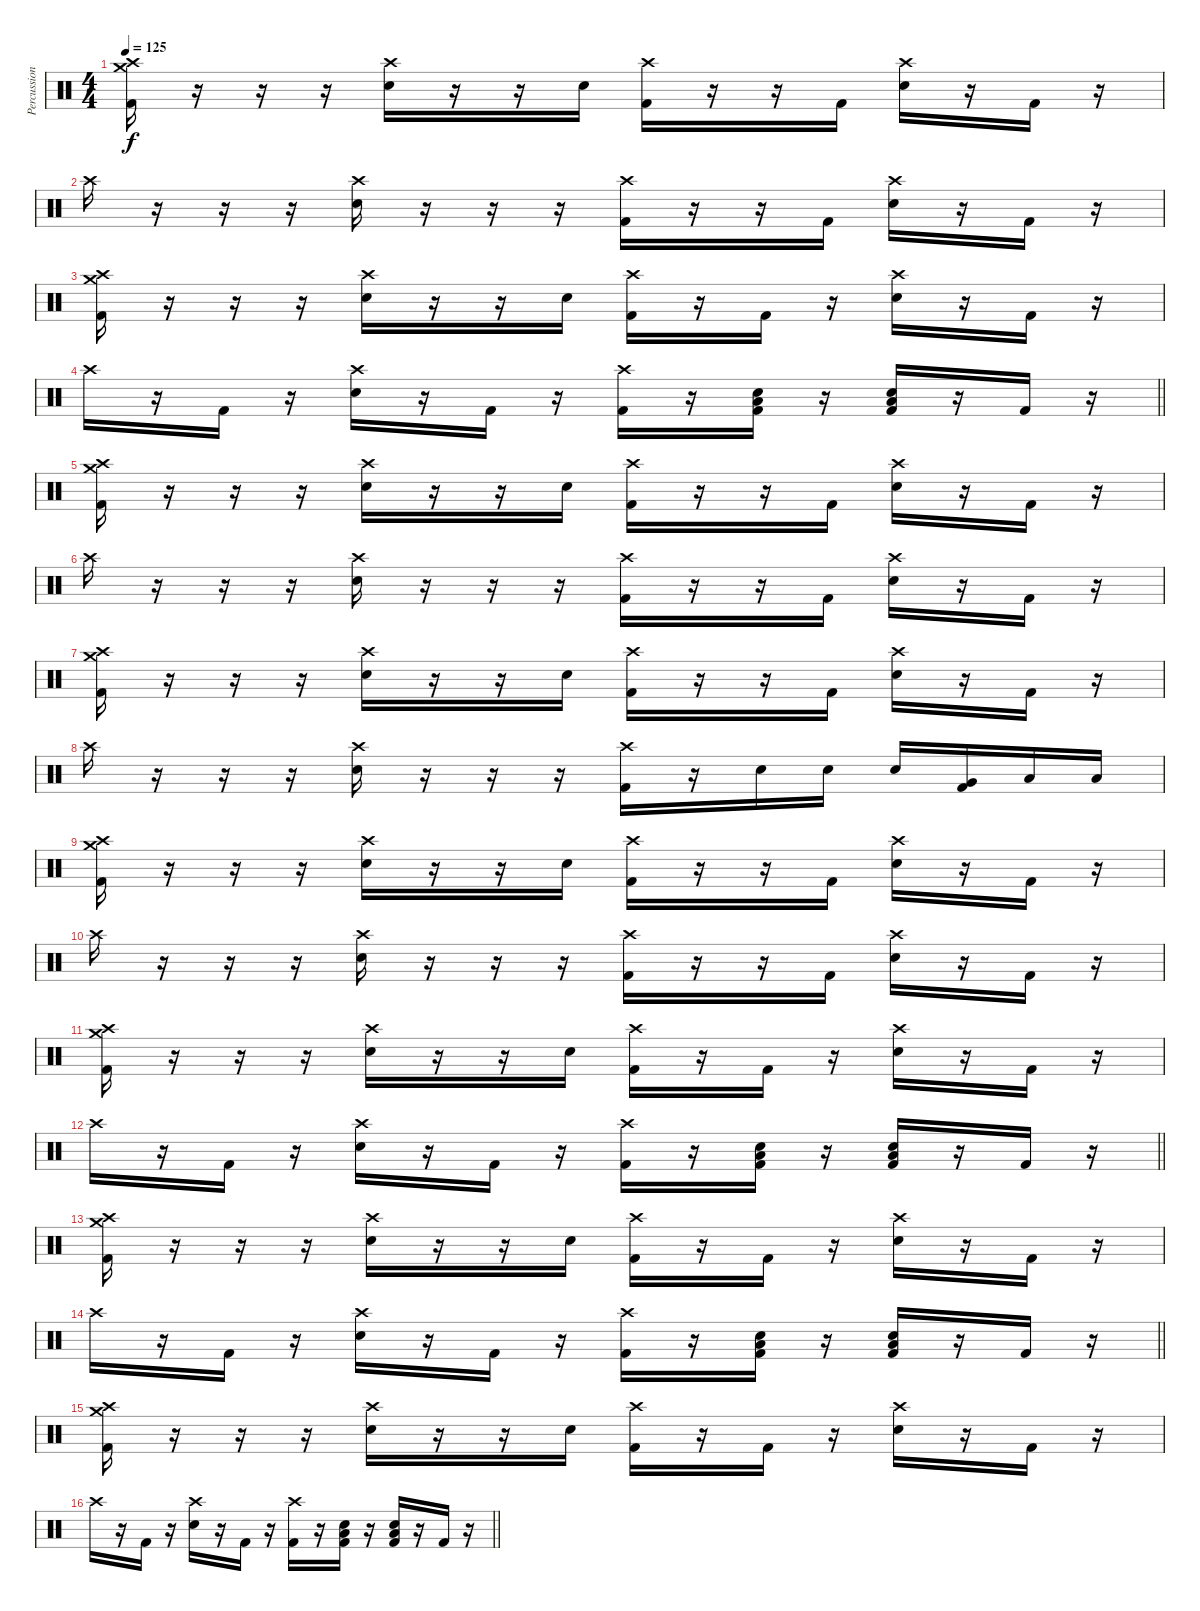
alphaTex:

\track ("Percussion" "Percussion") {instrument percussion}
\staff {score}
\articulation defaults
\ts (4 4)
\tempo 125
\clef neutral
\ks c
("Crash medium (hit)" "Crash high (hit)" "Kick (hit) 2").16{dy f} r.16 r.16 r.16 ("Crash high (hit)" "Electric Snare (hit)").16 r.16 r.16 "Electric Snare (hit)".16 ("Crash high (hit)" "Kick (hit) 2").16 r.16 r.16 "Kick (hit) 2".16 ("Crash high (hit)" "Electric Snare (hit)").16 r.16 "Kick (hit) 2".16 r.16 |
"Crash high (hit)".16 r.16 r.16 r.16 ("Crash high (hit)" "Electric Snare (hit)").16 r.16 r.16 r.16 ("Crash high (hit)" "Kick (hit) 2").16 r.16 r.16 "Kick (hit) 2".16 ("Crash high (hit)" "Electric Snare (hit)").16 r.16 "Kick (hit) 2".16 r.16 |
("Crash medium (hit)" "Crash high (hit)" "Kick (hit) 2").16 r.16 r.16 r.16 ("Crash high (hit)" "Electric Snare (hit)").16 r.16 r.16 "Electric Snare (hit)".16 ("Crash high (hit)" "Kick (hit) 2").16 r.16 "Kick (hit) 2".16 r.16 ("Crash high (hit)" "Electric Snare (hit)").16 r.16 "Kick (hit) 2".16 r.16 |
\barLineRight lightlight "Crash high (hit)".16
r.16 "Kick (hit) 2".16 r.16 ("Crash high (hit)" "Electric Snare (hit)").16 r.16 "Kick (hit) 2".16 r.16 ("Crash high (hit)" "Kick (hit) 2").16 r.16 ("Electric Snare (hit)" "Low Floor Tom (hit)" "Kick (hit) 2").16 r.16 ("Electric Snare (hit)" "Low Floor Tom (hit)" "Kick (hit) 2").16 r.16 "Kick (hit) 2".16 r.16 |
("Crash medium (hit)" "Crash high (hit)" "Kick (hit) 2").16 r.16 r.16 r.16 ("Crash high (hit)" "Electric Snare (hit)").16 r.16 r.16 "Electric Snare (hit)".16 ("Crash high (hit)" "Kick (hit) 2").16 r.16 r.16 "Kick (hit) 2".16 ("Crash high (hit)" "Electric Snare (hit)").16 r.16 "Kick (hit) 2".16 r.16 |
"Crash high (hit)".16 r.16 r.16 r.16 ("Crash high (hit)" "Electric Snare (hit)").16 r.16 r.16 r.16 ("Crash high (hit)" "Kick (hit) 2").16 r.16 r.16 "Kick (hit) 2".16 ("Crash high (hit)" "Electric Snare (hit)").16 r.16 "Kick (hit) 2".16 r.16 |
("Crash medium (hit)" "Crash high (hit)" "Kick (hit) 2").16 r.16 r.16 r.16 ("Crash high (hit)" "Electric Snare (hit)").16 r.16 r.16 "Electric Snare (hit)".16 ("Crash high (hit)" "Kick (hit) 2").16 r.16 r.16 "Kick (hit) 2".16 ("Crash high (hit)" "Electric Snare (hit)").16 r.16 "Kick (hit) 2".16 r.16 |
"Crash high (hit)".16 r.16 r.16 r.16 ("Crash high (hit)" "Electric Snare (hit)").16 r.16 r.16 r.16 ("Crash high (hit)" "Kick (hit) 2").16 r.16 "Electric Snare (hit)".16 "Electric Snare (hit)".16 "Electric Snare (hit)".16 ("Very Low Tom (hit)" "Kick (hit) 2").16 "Low Floor Tom (hit)".16 "Low Floor Tom (hit)".16 |
("Crash medium (hit)" "Crash high (hit)" "Kick (hit) 2").16 r.16 r.16 r.16 ("Crash high (hit)" "Electric Snare (hit)").16 r.16 r.16 "Electric Snare (hit)".16 ("Crash high (hit)" "Kick (hit) 2").16 r.16 r.16 "Kick (hit) 2".16 ("Crash high (hit)" "Electric Snare (hit)").16 r.16 "Kick (hit) 2".16 r.16 |
"Crash high (hit)".16 r.16 r.16 r.16 ("Crash high (hit)" "Electric Snare (hit)").16 r.16 r.16 r.16 ("Crash high (hit)" "Kick (hit) 2").16 r.16 r.16 "Kick (hit) 2".16 ("Crash high (hit)" "Electric Snare (hit)").16 r.16 "Kick (hit) 2".16 r.16 |
("Crash medium (hit)" "Crash high (hit)" "Kick (hit) 2").16 r.16 r.16 r.16 ("Crash high (hit)" "Electric Snare (hit)").16 r.16 r.16 "Electric Snare (hit)".16 ("Crash high (hit)" "Kick (hit) 2").16 r.16 "Kick (hit) 2".16 r.16 ("Crash high (hit)" "Electric Snare (hit)").16 r.16 "Kick (hit) 2".16 r.16 |
\barLineRight lightlight "Crash high (hit)".16
r.16 "Kick (hit) 2".16 r.16 ("Crash high (hit)" "Electric Snare (hit)").16 r.16 "Kick (hit) 2".16 r.16 ("Crash high (hit)" "Kick (hit) 2").16 r.16 ("Electric Snare (hit)" "Low Floor Tom (hit)" "Kick (hit) 2").16 r.16 ("Electric Snare (hit)" "Low Floor Tom (hit)" "Kick (hit) 2").16 r.16 "Kick (hit) 2".16 r.16 |
("Crash medium (hit)" "Crash high (hit)" "Kick (hit) 2").16 r.16 r.16 r.16 ("Crash high (hit)" "Electric Snare (hit)").16 r.16 r.16 "Electric Snare (hit)".16 ("Crash high (hit)" "Kick (hit) 2").16 r.16 "Kick (hit) 2".16 r.16 ("Crash high (hit)" "Electric Snare (hit)").16 r.16 "Kick (hit) 2".16 r.16 |
\barLineRight lightlight "Crash high (hit)".16
r.16 "Kick (hit) 2".16 r.16 ("Crash high (hit)" "Electric Snare (hit)").16 r.16 "Kick (hit) 2".16 r.16 ("Crash high (hit)" "Kick (hit) 2").16 r.16 ("Electric Snare (hit)" "Low Floor Tom (hit)" "Kick (hit) 2").16 r.16 ("Electric Snare (hit)" "Low Floor Tom (hit)" "Kick (hit) 2").16 r.16 "Kick (hit) 2".16 r.16 |
("Crash medium (hit)" "Crash high (hit)" "Kick (hit) 2").16 r.16 r.16 r.16 ("Crash high (hit)" "Electric Snare (hit)").16 r.16 r.16 "Electric Snare (hit)".16 ("Crash high (hit)" "Kick (hit) 2").16 r.16 "Kick (hit) 2".16 r.16 ("Crash high (hit)" "Electric Snare (hit)").16 r.16 "Kick (hit) 2".16 r.16 |
\barLineRight lightlight "Crash high (hit)".16
r.16 "Kick (hit) 2".16 r.16 ("Crash high (hit)" "Electric Snare (hit)").16 r.16 "Kick (hit) 2".16 r.16 ("Crash high (hit)" "Kick (hit) 2").16 r.16 ("Electric Snare (hit)" "Low Floor Tom (hit)" "Kick (hit) 2").16 r.16 ("Electric Snare (hit)" "Low Floor Tom (hit)" "Kick (hit) 2").16 r.16 "Kick (hit) 2".16 r.16
